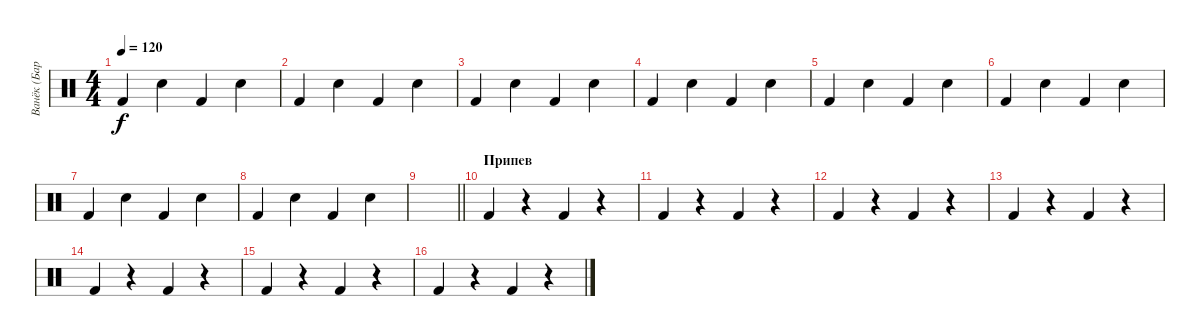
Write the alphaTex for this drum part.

\track ("Ванёк (Барабанщик)" "Ванёк (Бар") {instrument percussion}
\staff {score}
\articulation defaults
\ts (4 4)
\tempo 120
\clef neutral
\ks c "Kick (hit) 2".4{dy f} "Electric Snare (hit)".4 "Kick (hit) 2".4 "Electric Snare (hit)".4
|
"Kick (hit) 2".4 "Electric Snare (hit)".4 "Kick (hit) 2".4 "Electric Snare (hit)".4 |
"Kick (hit) 2".4 "Electric Snare (hit)".4 "Kick (hit) 2".4 "Electric Snare (hit)".4 |
"Kick (hit) 2".4 "Electric Snare (hit)".4 "Kick (hit) 2".4 "Electric Snare (hit)".4 |
"Kick (hit) 2".4 "Electric Snare (hit)".4 "Kick (hit) 2".4 "Electric Snare (hit)".4 |
"Kick (hit) 2".4 "Electric Snare (hit)".4 "Kick (hit) 2".4 "Electric Snare (hit)".4 |
"Kick (hit) 2".4 "Electric Snare (hit)".4 "Kick (hit) 2".4 "Electric Snare (hit)".4 |
"Kick (hit) 2".4 "Electric Snare (hit)".4 "Kick (hit) 2".4 "Electric Snare (hit)".4 |
\barLineRight lightlight
|
\section ("" "Припев")
"Kick (hit) 2".4 r.4 "Kick (hit) 2".4 r.4 |
"Kick (hit) 2".4 r.4 "Kick (hit) 2".4 r.4 |
"Kick (hit) 2".4 r.4 "Kick (hit) 2".4 r.4 |
"Kick (hit) 2".4 r.4 "Kick (hit) 2".4 r.4 |
"Kick (hit) 2".4 r.4 "Kick (hit) 2".4 r.4 |
"Kick (hit) 2".4 r.4 "Kick (hit) 2".4 r.4 |
"Kick (hit) 2".4 r.4 "Kick (hit) 2".4 r.4
